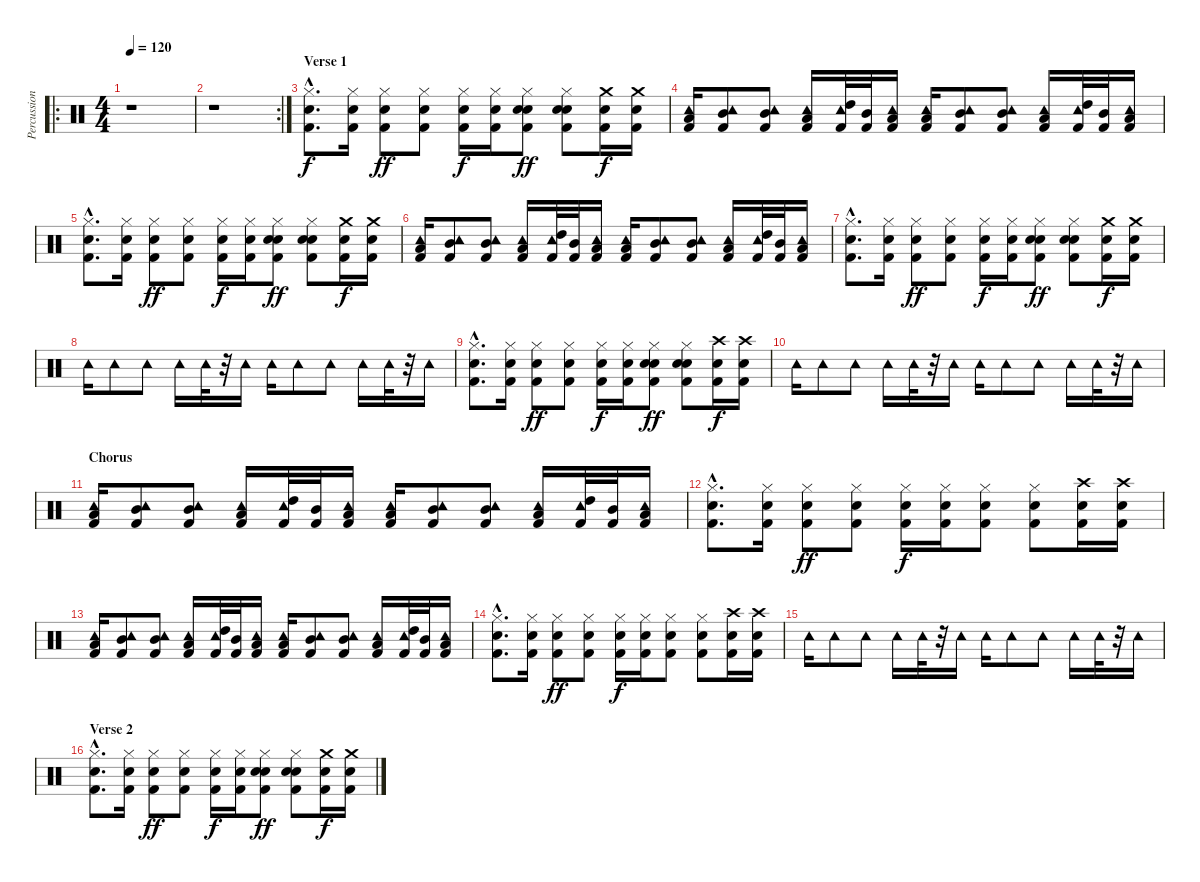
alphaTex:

\track ("Percussion" "Percussion") {instrument percussion}
\staff {score}
\articulation defaults
\ro
\ts (4 4)
\tempo 120
\clef neutral
\ks c
r.1{dy f} |
\rc 2
r.1 |
\section ("" "Verse 1")
("Hi-Hat (closed)"{hac} "Snare (hit) 2"{hac} "Kick (hit) 2"{hac}).8{d} ("Hi-Hat (closed)" "Snare (hit) 2" "Kick (hit) 2").16 ("Hi-Hat (closed)" "Hand Clap (hit)" "Kick (hit) 2").8{dy ff} ("Hi-Hat (closed)" "Hand Clap (hit)" "Kick (hit) 2").8 ("Hi-Hat (closed)" "Snare (hit) 2" "Kick (hit) 2").16{dy f} ("Hi-Hat (closed)" "Snare (hit) 2" "Kick (hit) 2").16 ("Hi-Hat (closed)" "Hand Clap (hit)" "Electric Snare (hit)" "Kick (hit) 2").8{dy ff} ("Hi-Hat (closed)" "Hand Clap (hit)" "Electric Snare (hit)" "Kick (hit) 2").8 ("Crash medium (hit)" "Electric Snare (hit)" "Kick (hit) 2").16{dy f} ("Crash medium (hit)" "Electric Snare (hit)" "Kick (hit) 2").16 |
("Tambourine (hit)" "Low Tom (hit)" "Kick (hit) 2").16 ("Tambourine (hit)" "Mid Tom (hit)" "Kick (hit) 2").8 ("Tambourine (hit)" "Mid Tom (hit)" "Kick (hit) 2").8 ("Tambourine (hit)" "Low Tom (hit)" "Kick (hit) 2").16 ("Tambourine (hit)" "High Tom (hit)" "Kick (hit) 2").32 ("Mid Tom (hit)" "Kick (hit) 2").32 ("Tambourine (hit)" "Low Tom (hit)" "Kick (hit) 2").16 ("Tambourine (hit)" "Low Tom (hit)" "Kick (hit) 2").16 ("Tambourine (hit)" "Mid Tom (hit)" "Kick (hit) 2").8 ("Tambourine (hit)" "Mid Tom (hit)" "Kick (hit) 2").8 ("Tambourine (hit)" "Low Tom (hit)" "Kick (hit) 2").16 ("Tambourine (hit)" "High Tom (hit)" "Kick (hit) 2").32 ("Mid Tom (hit)" "Kick (hit) 2").32 ("Tambourine (hit)" "Low Tom (hit)" "Kick (hit) 2").16 |
("Hi-Hat (closed)"{hac} "Snare (hit) 2"{hac} "Kick (hit) 2"{hac}).8{d} ("Hi-Hat (closed)" "Snare (hit) 2" "Kick (hit) 2").16 ("Hi-Hat (closed)" "Hand Clap (hit)" "Kick (hit) 2").8{dy ff} ("Hi-Hat (closed)" "Hand Clap (hit)" "Kick (hit) 2").8 ("Hi-Hat (closed)" "Snare (hit) 2" "Kick (hit) 2").16{dy f} ("Hi-Hat (closed)" "Snare (hit) 2" "Kick (hit) 2").16 ("Hi-Hat (closed)" "Hand Clap (hit)" "Electric Snare (hit)" "Kick (hit) 2").8{dy ff} ("Hi-Hat (closed)" "Hand Clap (hit)" "Electric Snare (hit)" "Kick (hit) 2").8 ("Crash medium (hit)" "Electric Snare (hit)" "Kick (hit) 2").16{dy f} ("Crash medium (hit)" "Electric Snare (hit)" "Kick (hit) 2").16 |
("Tambourine (hit)" "Low Tom (hit)" "Kick (hit) 2").16 ("Tambourine (hit)" "Mid Tom (hit)" "Kick (hit) 2").8 ("Tambourine (hit)" "Mid Tom (hit)" "Kick (hit) 2").8 ("Tambourine (hit)" "Low Tom (hit)" "Kick (hit) 2").16 ("Tambourine (hit)" "High Tom (hit)" "Kick (hit) 2").32 ("Mid Tom (hit)" "Kick (hit) 2").32 ("Tambourine (hit)" "Low Tom (hit)" "Kick (hit) 2").16 ("Tambourine (hit)" "Low Tom (hit)" "Kick (hit) 2").16 ("Tambourine (hit)" "Mid Tom (hit)" "Kick (hit) 2").8 ("Tambourine (hit)" "Mid Tom (hit)" "Kick (hit) 2").8 ("Tambourine (hit)" "Low Tom (hit)" "Kick (hit) 2").16 ("Tambourine (hit)" "High Tom (hit)" "Kick (hit) 2").32 ("Mid Tom (hit)" "Kick (hit) 2").32 ("Tambourine (hit)" "Low Tom (hit)" "Kick (hit) 2").16 |
("Hi-Hat (closed)"{hac} "Snare (hit) 2"{hac} "Kick (hit) 2"{hac}).8{d} ("Hi-Hat (closed)" "Snare (hit) 2" "Kick (hit) 2").16 ("Hi-Hat (closed)" "Hand Clap (hit)" "Kick (hit) 2").8{dy ff} ("Hi-Hat (closed)" "Hand Clap (hit)" "Kick (hit) 2").8 ("Hi-Hat (closed)" "Snare (hit) 2" "Kick (hit) 2").16{dy f} ("Hi-Hat (closed)" "Snare (hit) 2" "Kick (hit) 2").16 ("Hi-Hat (closed)" "Hand Clap (hit)" "Electric Snare (hit)" "Kick (hit) 2").8{dy ff} ("Hi-Hat (closed)" "Hand Clap (hit)" "Electric Snare (hit)" "Kick (hit) 2").8 ("Crash medium (hit)" "Electric Snare (hit)" "Kick (hit) 2").16{dy f} ("Crash medium (hit)" "Electric Snare (hit)" "Kick (hit) 2").16 |
"Tambourine (hit)".16 "Tambourine (hit)".8 "Tambourine (hit)".8 "Tambourine (hit)".16 "Tambourine (hit)".32 r.32 "Tambourine (hit)".16 "Tambourine (hit)".16 "Tambourine (hit)".8 "Tambourine (hit)".8 "Tambourine (hit)".16 "Tambourine (hit)".32 r.32 "Tambourine (hit)".16 |
("Hi-Hat (closed)"{hac} "Snare (hit) 2"{hac} "Kick (hit) 2"{hac}).8{d} ("Hi-Hat (closed)" "Snare (hit) 2" "Kick (hit) 2").16 ("Hi-Hat (closed)" "Hand Clap (hit)" "Kick (hit) 2").8{dy ff} ("Hi-Hat (closed)" "Hand Clap (hit)" "Kick (hit) 2").8 ("Hi-Hat (closed)" "Snare (hit) 2" "Kick (hit) 2").16{dy f} ("Hi-Hat (closed)" "Snare (hit) 2" "Kick (hit) 2").16 ("Hi-Hat (closed)" "Hand Clap (hit)" "Electric Snare (hit)" "Kick (hit) 2").8{dy ff} ("Hi-Hat (closed)" "Hand Clap (hit)" "Electric Snare (hit)" "Kick (hit) 2").8 ("Crash high (hit)" "Electric Snare (hit)" "Kick (hit) 2").16{dy f} ("Crash high (hit)" "Electric Snare (hit)" "Kick (hit) 2").16 |
"Tambourine (hit)".16 "Tambourine (hit)".8 "Tambourine (hit)".8 "Tambourine (hit)".16 "Tambourine (hit)".32 r.32 "Tambourine (hit)".16 "Tambourine (hit)".16 "Tambourine (hit)".8 "Tambourine (hit)".8 "Tambourine (hit)".16 "Tambourine (hit)".32 r.32 "Tambourine (hit)".16 |
\section ("" "Chorus")
("Tambourine (hit)" "Low Tom (hit)" "Kick (hit) 2").16 ("Tambourine (hit)" "Mid Tom (hit)" "Kick (hit) 2").8 ("Tambourine (hit)" "Mid Tom (hit)" "Kick (hit) 2").8 ("Tambourine (hit)" "Low Tom (hit)" "Kick (hit) 2").16 ("Tambourine (hit)" "High Tom (hit)" "Kick (hit) 2").32 ("Mid Tom (hit)" "Kick (hit) 2").32 ("Tambourine (hit)" "Low Tom (hit)" "Kick (hit) 2").16 ("Tambourine (hit)" "Low Tom (hit)" "Kick (hit) 2").16 ("Tambourine (hit)" "Mid Tom (hit)" "Kick (hit) 2").8 ("Tambourine (hit)" "Mid Tom (hit)" "Kick (hit) 2").8 ("Tambourine (hit)" "Low Tom (hit)" "Kick (hit) 2").16 ("Tambourine (hit)" "High Tom (hit)" "Kick (hit) 2").32 ("Mid Tom (hit)" "Kick (hit) 2").32 ("Tambourine (hit)" "Low Tom (hit)" "Kick (hit) 2").16 |
("Hi-Hat (closed)"{hac} "Snare (hit) 2"{hac} "Kick (hit) 2"{hac}).8{d} ("Hi-Hat (closed)" "Snare (hit) 2" "Kick (hit) 2").16 ("Hi-Hat (closed)" "Electric Snare (hit)" "Kick (hit) 2").8{dy ff} ("Hi-Hat (closed)" "Electric Snare (hit)" "Kick (hit) 2").8 ("Hi-Hat (closed)" "Snare (hit) 2" "Kick (hit) 2").16{dy f} ("Hi-Hat (closed)" "Snare (hit) 2" "Kick (hit) 2").16 ("Hi-Hat (closed)" "Electric Snare (hit)" "Kick (hit) 2").8 ("Hi-Hat (closed)" "Electric Snare (hit)" "Kick (hit) 2").8 ("Crash high (hit)" "Electric Snare (hit)" "Kick (hit) 2").16 ("Crash high (hit)" "Electric Snare (hit)" "Kick (hit) 2").16 |
("Tambourine (hit)" "Low Tom (hit)" "Kick (hit) 2").16 ("Tambourine (hit)" "Mid Tom (hit)" "Kick (hit) 2").8 ("Tambourine (hit)" "Mid Tom (hit)" "Kick (hit) 2").8 ("Tambourine (hit)" "Low Tom (hit)" "Kick (hit) 2").16 ("Tambourine (hit)" "High Tom (hit)" "Kick (hit) 2").32 ("Mid Tom (hit)" "Kick (hit) 2").32 ("Tambourine (hit)" "Low Tom (hit)" "Kick (hit) 2").16 ("Tambourine (hit)" "Low Tom (hit)" "Kick (hit) 2").16 ("Tambourine (hit)" "Mid Tom (hit)" "Kick (hit) 2").8 ("Tambourine (hit)" "Mid Tom (hit)" "Kick (hit) 2").8 ("Tambourine (hit)" "Low Tom (hit)" "Kick (hit) 2").16 ("Tambourine (hit)" "High Tom (hit)" "Kick (hit) 2").32 ("Mid Tom (hit)" "Kick (hit) 2").32 ("Tambourine (hit)" "Low Tom (hit)" "Kick (hit) 2").16 |
("Hi-Hat (closed)"{hac} "Snare (hit) 2"{hac} "Kick (hit) 2"{hac}).8{d} ("Hi-Hat (closed)" "Snare (hit) 2" "Kick (hit) 2").16 ("Hi-Hat (closed)" "Electric Snare (hit)" "Kick (hit) 2").8{dy ff} ("Hi-Hat (closed)" "Electric Snare (hit)" "Kick (hit) 2").8 ("Hi-Hat (closed)" "Snare (hit) 2" "Kick (hit) 2").16{dy f} ("Hi-Hat (closed)" "Snare (hit) 2" "Kick (hit) 2").16 ("Hi-Hat (closed)" "Electric Snare (hit)" "Kick (hit) 2").8 ("Hi-Hat (closed)" "Electric Snare (hit)" "Kick (hit) 2").8 ("Crash high (hit)" "Electric Snare (hit)" "Kick (hit) 2").16 ("Crash high (hit)" "Electric Snare (hit)" "Kick (hit) 2").16 |
"Tambourine (hit)".16 "Tambourine (hit)".8 "Tambourine (hit)".8 "Tambourine (hit)".16 "Tambourine (hit)".32 r.32 "Tambourine (hit)".16 "Tambourine (hit)".16 "Tambourine (hit)".8 "Tambourine (hit)".8 "Tambourine (hit)".16 "Tambourine (hit)".32 r.32 "Tambourine (hit)".16 |
\section ("" "Verse 2")
("Hi-Hat (closed)"{hac} "Snare (hit) 2"{hac} "Kick (hit) 2"{hac}).8{d} ("Hi-Hat (closed)" "Snare (hit) 2" "Kick (hit) 2").16 ("Hi-Hat (closed)" "Hand Clap (hit)" "Kick (hit) 2").8{dy ff} ("Hi-Hat (closed)" "Hand Clap (hit)" "Kick (hit) 2").8 ("Hi-Hat (closed)" "Snare (hit) 2" "Kick (hit) 2").16{dy f} ("Hi-Hat (closed)" "Snare (hit) 2" "Kick (hit) 2").16 ("Hi-Hat (closed)" "Hand Clap (hit)" "Electric Snare (hit)" "Kick (hit) 2").8{dy ff} ("Hi-Hat (closed)" "Hand Clap (hit)" "Electric Snare (hit)" "Kick (hit) 2").8 ("Crash medium (hit)" "Electric Snare (hit)" "Kick (hit) 2").16{dy f} ("Crash medium (hit)" "Electric Snare (hit)" "Kick (hit) 2").16
